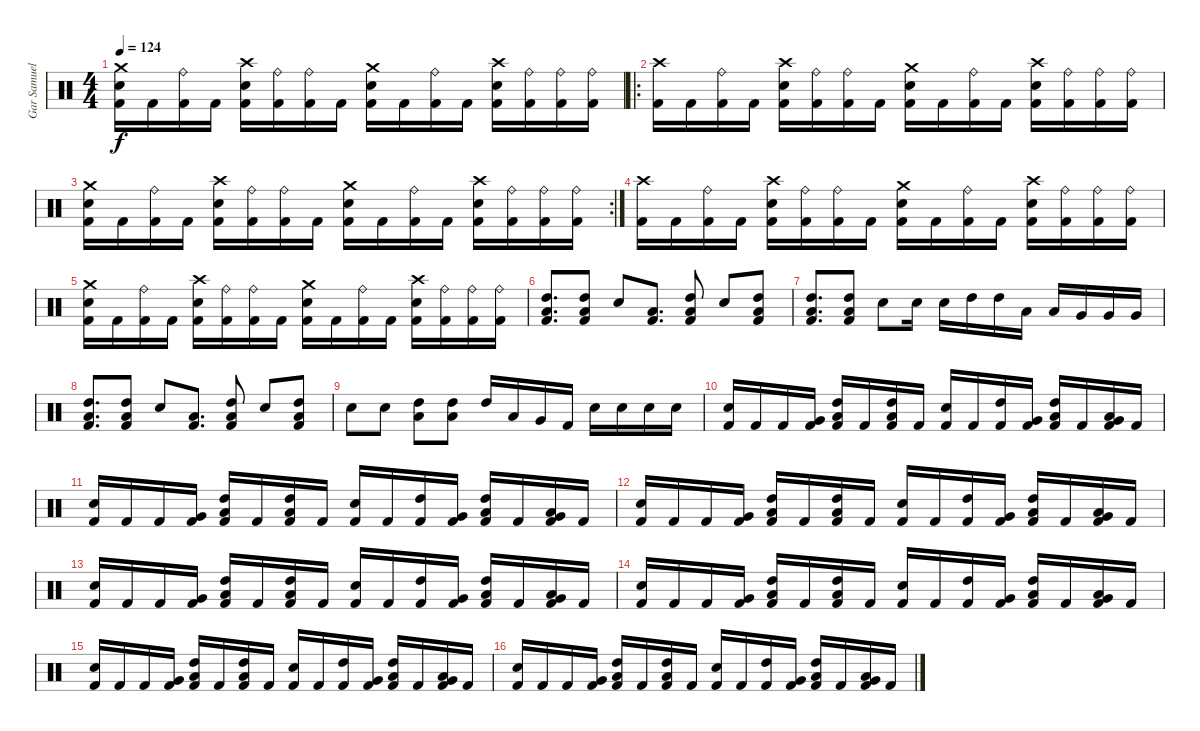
\track ("Gar Samuelson" "Gar Samuel") {instrument percussion}
\staff {score}
\articulation defaults
\ts (4 4)
\tempo 124
\clef neutral
\ks c
("Crash medium (hit)" "Electric Snare (hit)" "Kick (hit) 2").16{dy f} "Kick (hit) 2".16 ("Ride (bell)" "Kick (hit) 2").16 "Kick (hit) 2".16 ("Crash high (hit)" "Electric Snare (hit)" "Kick (hit) 2").16 ("Ride (bell)" "Kick (hit) 2").16 ("Ride (bell)" "Kick (hit) 2").16 "Kick (hit) 2".16 ("Crash medium (hit)" "Electric Snare (hit)" "Kick (hit) 2").16 "Kick (hit) 2".16 ("Ride (bell)" "Kick (hit) 2").16 "Kick (hit) 2".16 ("Crash high (hit)" "Electric Snare (hit)" "Kick (hit) 2").16 ("Ride (bell)" "Kick (hit) 2").16 ("Ride (bell)" "Kick (hit) 2").16 ("Ride (bell)" "Kick (hit) 2").16 |
\ro
("Crash high (hit)" "Kick (hit) 2").16 "Kick (hit) 2".16 ("Ride (bell)" "Kick (hit) 2").16 "Kick (hit) 2".16 ("Crash high (hit)" "Electric Snare (hit)" "Kick (hit) 2").16 ("Ride (bell)" "Kick (hit) 2").16 ("Ride (bell)" "Kick (hit) 2").16 "Kick (hit) 2".16 ("Crash medium (hit)" "Electric Snare (hit)" "Kick (hit) 2").16 "Kick (hit) 2".16 ("Ride (bell)" "Kick (hit) 2").16 "Kick (hit) 2".16 ("Crash high (hit)" "Electric Snare (hit)" "Kick (hit) 2").16 ("Ride (bell)" "Kick (hit) 2").16 ("Ride (bell)" "Kick (hit) 2").16 ("Ride (bell)" "Kick (hit) 2").16 |
\rc 2
("Crash medium (hit)" "Electric Snare (hit)" "Kick (hit) 2").16 "Kick (hit) 2".16 ("Ride (bell)" "Kick (hit) 2").16 "Kick (hit) 2".16 ("Crash high (hit)" "Electric Snare (hit)" "Kick (hit) 2").16 ("Ride (bell)" "Kick (hit) 2").16 ("Ride (bell)" "Kick (hit) 2").16 "Kick (hit) 2".16 ("Crash medium (hit)" "Electric Snare (hit)" "Kick (hit) 2").16 "Kick (hit) 2".16 ("Ride (bell)" "Kick (hit) 2").16 "Kick (hit) 2".16 ("Crash high (hit)" "Electric Snare (hit)" "Kick (hit) 2").16 ("Ride (bell)" "Kick (hit) 2").16 ("Ride (bell)" "Kick (hit) 2").16 ("Ride (bell)" "Kick (hit) 2").16 |
("Crash high (hit)" "Kick (hit) 2").16 "Kick (hit) 2".16 ("Ride (bell)" "Kick (hit) 2").16 "Kick (hit) 2".16 ("Crash high (hit)" "Electric Snare (hit)" "Kick (hit) 2").16 ("Ride (bell)" "Kick (hit) 2").16 ("Ride (bell)" "Kick (hit) 2").16 "Kick (hit) 2".16 ("Crash medium (hit)" "Electric Snare (hit)" "Kick (hit) 2").16 "Kick (hit) 2".16 ("Ride (bell)" "Kick (hit) 2").16 "Kick (hit) 2".16 ("Crash high (hit)" "Electric Snare (hit)" "Kick (hit) 2").16 ("Ride (bell)" "Kick (hit) 2").16 ("Ride (bell)" "Kick (hit) 2").16 ("Ride (bell)" "Kick (hit) 2").16 |
("Crash medium (hit)" "Electric Snare (hit)" "Kick (hit) 2").16 "Kick (hit) 2".16 ("Ride (bell)" "Kick (hit) 2").16 "Kick (hit) 2".16 ("Crash high (hit)" "Electric Snare (hit)" "Kick (hit) 2").16 ("Ride (bell)" "Kick (hit) 2").16 ("Ride (bell)" "Kick (hit) 2").16 "Kick (hit) 2".16 ("Crash medium (hit)" "Electric Snare (hit)" "Kick (hit) 2").16 "Kick (hit) 2".16 ("Ride (bell)" "Kick (hit) 2").16 "Kick (hit) 2".16 ("Crash high (hit)" "Electric Snare (hit)" "Kick (hit) 2").16 ("Ride (bell)" "Kick (hit) 2").16 ("Ride (bell)" "Kick (hit) 2").16 ("Ride (bell)" "Kick (hit) 2").16 |
("High Tom (hit)" "Low Tom (hit)" "Kick (hit) 2").8{d} ("High Tom (hit)" "Low Tom (hit)" "Kick (hit) 2").8 "Electric Snare (hit)".8 ("Low Tom (hit)" "Kick (hit) 2").8{d} ("High Tom (hit)" "Low Tom (hit)" "Kick (hit) 2").8 "Electric Snare (hit)".8 ("High Tom (hit)" "Low Tom (hit)" "Kick (hit) 2").8 |
("High Tom (hit)" "Low Tom (hit)" "Kick (hit) 2").8{d} ("High Tom (hit)" "Low Tom (hit)" "Kick (hit) 2").8 "Electric Snare (hit)".8 "Electric Snare (hit)".16 "Electric Snare (hit)".16 "High Tom (hit)".16 "High Tom (hit)".16 "Low Tom (hit)".16 "Low Tom (hit)".16 "Very Low Tom (hit)".16 "Very Low Tom (hit)".16 "Very Low Tom (hit)".16 |
("High Tom (hit)" "Low Tom (hit)" "Kick (hit) 2").8{d} ("High Tom (hit)" "Low Tom (hit)" "Kick (hit) 2").8 "Electric Snare (hit)".8 ("Low Tom (hit)" "Kick (hit) 2").8{d} ("High Tom (hit)" "Low Tom (hit)" "Kick (hit) 2").8 "Electric Snare (hit)".8 ("High Tom (hit)" "Low Tom (hit)" "Kick (hit) 2").8 |
"Electric Snare (hit)".8 "Electric Snare (hit)".8 ("High Tom (hit)" "Low Tom (hit)").8 ("High Tom (hit)" "Low Tom (hit)").8 "High Tom (hit)".16 "Low Tom (hit)".16 "Very Low Tom (hit)".16 "Kick (hit) 2".16 "Electric Snare (hit)".16 "Electric Snare (hit)".16 "Electric Snare (hit)".16 "Electric Snare (hit)".16 |
("Electric Snare (hit)" "Kick (hit) 2").16 "Kick (hit) 2".16 "Kick (hit) 2".16 ("Very Low Tom (hit)" "Kick (hit) 2").16 ("High Tom (hit)" "Low Tom (hit)" "Kick (hit) 2").16 "Kick (hit) 2".16 ("High Tom (hit)" "Low Tom (hit)" "Kick (hit) 2").16 "Kick (hit) 2".16 ("Electric Snare (hit)" "Kick (hit) 2").16 "Kick (hit) 2".16 ("High Tom (hit)" "Kick (hit) 2").16 ("Very Low Tom (hit)" "Kick (hit) 2").16 ("High Tom (hit)" "Low Tom (hit)" "Kick (hit) 2").16 "Kick (hit) 2".16 ("Low Tom (hit)" "Very Low Tom (hit)" "Kick (hit) 2").16 "Kick (hit) 2".16 |
("Electric Snare (hit)" "Kick (hit) 2").16 "Kick (hit) 2".16 "Kick (hit) 2".16 ("Very Low Tom (hit)" "Kick (hit) 2").16 ("High Tom (hit)" "Low Tom (hit)" "Kick (hit) 2").16 "Kick (hit) 2".16 ("High Tom (hit)" "Low Tom (hit)" "Kick (hit) 2").16 "Kick (hit) 2".16 ("Electric Snare (hit)" "Kick (hit) 2").16 "Kick (hit) 2".16 ("High Tom (hit)" "Kick (hit) 2").16 ("Very Low Tom (hit)" "Kick (hit) 2").16 ("High Tom (hit)" "Low Tom (hit)" "Kick (hit) 2").16 "Kick (hit) 2".16 ("Low Tom (hit)" "Very Low Tom (hit)" "Kick (hit) 2").16 "Kick (hit) 2".16 |
("Electric Snare (hit)" "Kick (hit) 2").16 "Kick (hit) 2".16 "Kick (hit) 2".16 ("Very Low Tom (hit)" "Kick (hit) 2").16 ("High Tom (hit)" "Low Tom (hit)" "Kick (hit) 2").16 "Kick (hit) 2".16 ("High Tom (hit)" "Low Tom (hit)" "Kick (hit) 2").16 "Kick (hit) 2".16 ("Electric Snare (hit)" "Kick (hit) 2").16 "Kick (hit) 2".16 ("High Tom (hit)" "Kick (hit) 2").16 ("Very Low Tom (hit)" "Kick (hit) 2").16 ("High Tom (hit)" "Low Tom (hit)" "Kick (hit) 2").16 "Kick (hit) 2".16 ("Low Tom (hit)" "Very Low Tom (hit)" "Kick (hit) 2").16 "Kick (hit) 2".16 |
("Electric Snare (hit)" "Kick (hit) 2").16 "Kick (hit) 2".16 "Kick (hit) 2".16 ("Very Low Tom (hit)" "Kick (hit) 2").16 ("High Tom (hit)" "Low Tom (hit)" "Kick (hit) 2").16 "Kick (hit) 2".16 ("High Tom (hit)" "Low Tom (hit)" "Kick (hit) 2").16 "Kick (hit) 2".16 ("Electric Snare (hit)" "Kick (hit) 2").16 "Kick (hit) 2".16 ("High Tom (hit)" "Kick (hit) 2").16 ("Very Low Tom (hit)" "Kick (hit) 2").16 ("High Tom (hit)" "Low Tom (hit)" "Kick (hit) 2").16 "Kick (hit) 2".16 ("Low Tom (hit)" "Very Low Tom (hit)" "Kick (hit) 2").16 "Kick (hit) 2".16 |
("Electric Snare (hit)" "Kick (hit) 2").16 "Kick (hit) 2".16 "Kick (hit) 2".16 ("Very Low Tom (hit)" "Kick (hit) 2").16 ("High Tom (hit)" "Low Tom (hit)" "Kick (hit) 2").16 "Kick (hit) 2".16 ("High Tom (hit)" "Low Tom (hit)" "Kick (hit) 2").16 "Kick (hit) 2".16 ("Electric Snare (hit)" "Kick (hit) 2").16 "Kick (hit) 2".16 ("High Tom (hit)" "Kick (hit) 2").16 ("Very Low Tom (hit)" "Kick (hit) 2").16 ("High Tom (hit)" "Low Tom (hit)" "Kick (hit) 2").16 "Kick (hit) 2".16 ("Low Tom (hit)" "Very Low Tom (hit)" "Kick (hit) 2").16 "Kick (hit) 2".16 |
("Electric Snare (hit)" "Kick (hit) 2").16 "Kick (hit) 2".16 "Kick (hit) 2".16 ("Very Low Tom (hit)" "Kick (hit) 2").16 ("High Tom (hit)" "Low Tom (hit)" "Kick (hit) 2").16 "Kick (hit) 2".16 ("High Tom (hit)" "Low Tom (hit)" "Kick (hit) 2").16 "Kick (hit) 2".16 ("Electric Snare (hit)" "Kick (hit) 2").16 "Kick (hit) 2".16 ("High Tom (hit)" "Kick (hit) 2").16 ("Very Low Tom (hit)" "Kick (hit) 2").16 ("High Tom (hit)" "Low Tom (hit)" "Kick (hit) 2").16 "Kick (hit) 2".16 ("Low Tom (hit)" "Very Low Tom (hit)" "Kick (hit) 2").16 "Kick (hit) 2".16 |
("Electric Snare (hit)" "Kick (hit) 2").16 "Kick (hit) 2".16 "Kick (hit) 2".16 ("Very Low Tom (hit)" "Kick (hit) 2").16 ("High Tom (hit)" "Low Tom (hit)" "Kick (hit) 2").16 "Kick (hit) 2".16 ("High Tom (hit)" "Low Tom (hit)" "Kick (hit) 2").16 "Kick (hit) 2".16 ("Electric Snare (hit)" "Kick (hit) 2").16 "Kick (hit) 2".16 ("High Tom (hit)" "Kick (hit) 2").16 ("Very Low Tom (hit)" "Kick (hit) 2").16 ("High Tom (hit)" "Low Tom (hit)" "Kick (hit) 2").16 "Kick (hit) 2".16 ("Low Tom (hit)" "Very Low Tom (hit)" "Kick (hit) 2").16 "Kick (hit) 2".16
